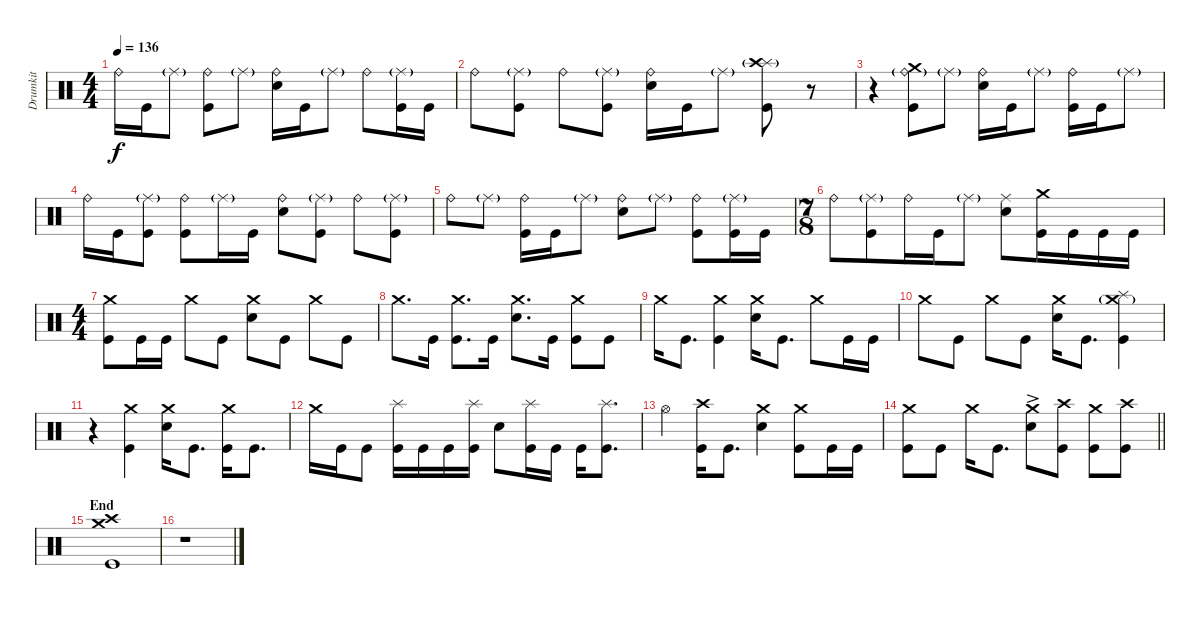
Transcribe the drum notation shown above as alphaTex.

\track ("Drumkit" "Drumkit") {instrument percussion}
\staff {score}
\articulation defaults
\ts (4 4)
\tempo 136
\clef neutral
\ks c "Ride (bell)".16{dy f} "Kick (hit)".16 "Ride (middle)"{g}.8
("Ride (bell)" "Kick (hit)").8 "Ride (middle)"{g}.8 ("Ride (bell)" "Snare (hit) 2").16 "Kick (hit)".16 "Ride (middle)"{g}.8 "Ride (bell)".8 ("Kick (hit)" "Ride (middle)"{g}).16 "Kick (hit)".16 |
"Ride (bell)".8 ("Kick (hit)" "Ride (middle)"{g}).8 "Ride (bell)".8 ("Kick (hit)" "Ride (middle)"{g}).8 ("Ride (bell)" "Snare (hit) 2").16 "Kick (hit)".16 "Ride (middle)"{g}.8 ("Kick (hit)" "Splash (hit)" "Crash high (hit)"{g}).8 r.8 |
r.4 ("Crash medium (hit)" "Ride (bell)"{g} "Kick (hit)").8 "Ride (middle)"{g}.8 ("Ride (bell)" "Snare (hit) 2").16 "Kick (hit)".16 "Ride (middle)"{g}.8 ("Ride (bell)" "Kick (hit)").16 "Kick (hit)".16 "Ride (middle)"{g}.8 |
"Ride (bell)".16 "Kick (hit)".16 ("Kick (hit)" "Ride (middle)"{g}).8 ("Ride (bell)" "Kick (hit)").8 "Ride (middle)"{g}.16 "Kick (hit)".16 ("Ride (bell)" "Snare (hit) 2").8 ("Kick (hit)" "Ride (middle)"{g}).8 "Ride (bell)".8 ("Kick (hit)" "Ride (middle)"{g}).8 |
"Ride (bell)".8 "Ride (middle)"{g}.8 ("Ride (bell)" "Kick (hit)").16 "Kick (hit)".16 "Ride (middle)"{g}.8 ("Ride (bell)" "Snare (hit) 2").8 "Ride (middle)"{g}.8 ("Ride (bell)" "Kick (hit)").8 ("Kick (hit)" "Ride (middle)"{g}).16 "Kick (hit)".16 |
\ts (7 8)
"Ride (bell)".8 ("Ride (middle)"{g} "Kick (hit)").8 "Ride (bell)".16 "Kick (hit)".16 "Ride (middle)"{g}.8 ("Ride (middle)" "Snare (hit) 2").8 ("Kick (hit)" "Crash medium (hit)").16 "Kick (hit)".16 "Kick (hit)".16 "Kick (hit)".16 |
\ts (4 4)
("Kick (hit)" "Crash medium (hit)").8 "Kick (hit)".16 "Kick (hit)".16 "Crash medium (hit)".8 "Kick (hit)".8 ("Snare (hit) 2" "Crash medium (hit)").8 "Kick (hit)".8 "Crash medium (hit)".8 "Kick (hit)".8 |
"Crash medium (hit)".8{d} "Kick (hit)".16 ("Kick (hit)" "Crash medium (hit)").8{d} "Kick (hit)".16 ("Snare (hit) 2" "Crash medium (hit)").8{d} "Kick (hit)".16 ("Kick (hit)" "Crash medium (hit)").8 "Kick (hit)".8 |
"Crash medium (hit)".16 "Kick (hit)".8{d} ("Kick (hit)" "Crash medium (hit)").4 ("Snare (hit) 2" "Crash medium (hit)").16 "Kick (hit)".8{d} "Crash medium (hit)".8 "Kick (hit)".16 "Kick (hit)".16 |
"Crash medium (hit)".8 "Kick (hit)".8 "Crash medium (hit)".8 "Kick (hit)".8 ("Snare (hit) 2" "Crash medium (hit)").16 "Kick (hit)".8{d} ("Kick (hit)" "Splash (hit)" "Crash medium (hit)"{g}).4 |
r.4 ("Crash medium (hit)" "Kick (hit)").4 ("Snare (hit) 2" "Crash medium (hit)").16 "Kick (hit)".8{d} ("Kick (hit)" "Crash medium (hit)").16 "Kick (hit)".8{d} |
"Crash medium (hit)".16 "Kick (hit)".16 "Kick (hit)".8 ("Splash (hit)" "Kick (hit)").16 "Kick (hit)".16 "Kick (hit)".16 ("Splash (hit)" "Kick (hit)").16 "Snare (hit) 2".8 ("Kick (hit)" "Splash (hit)").16 "Kick (hit)".16 "Kick (hit)".16 ("Kick (hit)" "Splash (hit)").8{d} |
"Hi-Hat (open)".4 ("Kick (hit)" "Crash high (hit)").16 "Kick (hit)".8{d} ("Snare (hit) 2" "Crash medium (hit)").4 ("Kick (hit)" "Crash medium (hit)").8 "Kick (hit)".16 "Kick (hit)".16 |
\barLineRight lightlight
("Crash medium (hit)" "Kick (hit)").8 "Kick (hit)".8 "Crash medium (hit)".16 "Kick (hit)".8{d} ("Crash medium (hit)" "Snare (hit) 2"{ac}).8 ("Kick (hit)" "Crash high (hit)").8 ("Kick (hit)" "Crash medium (hit)").8 ("Kick (hit)" "Crash high (hit)").8 |
\section ("" "End")
("Kick (hit)" "Crash medium (hit)" "Crash high (hit)").1 |
r.1
